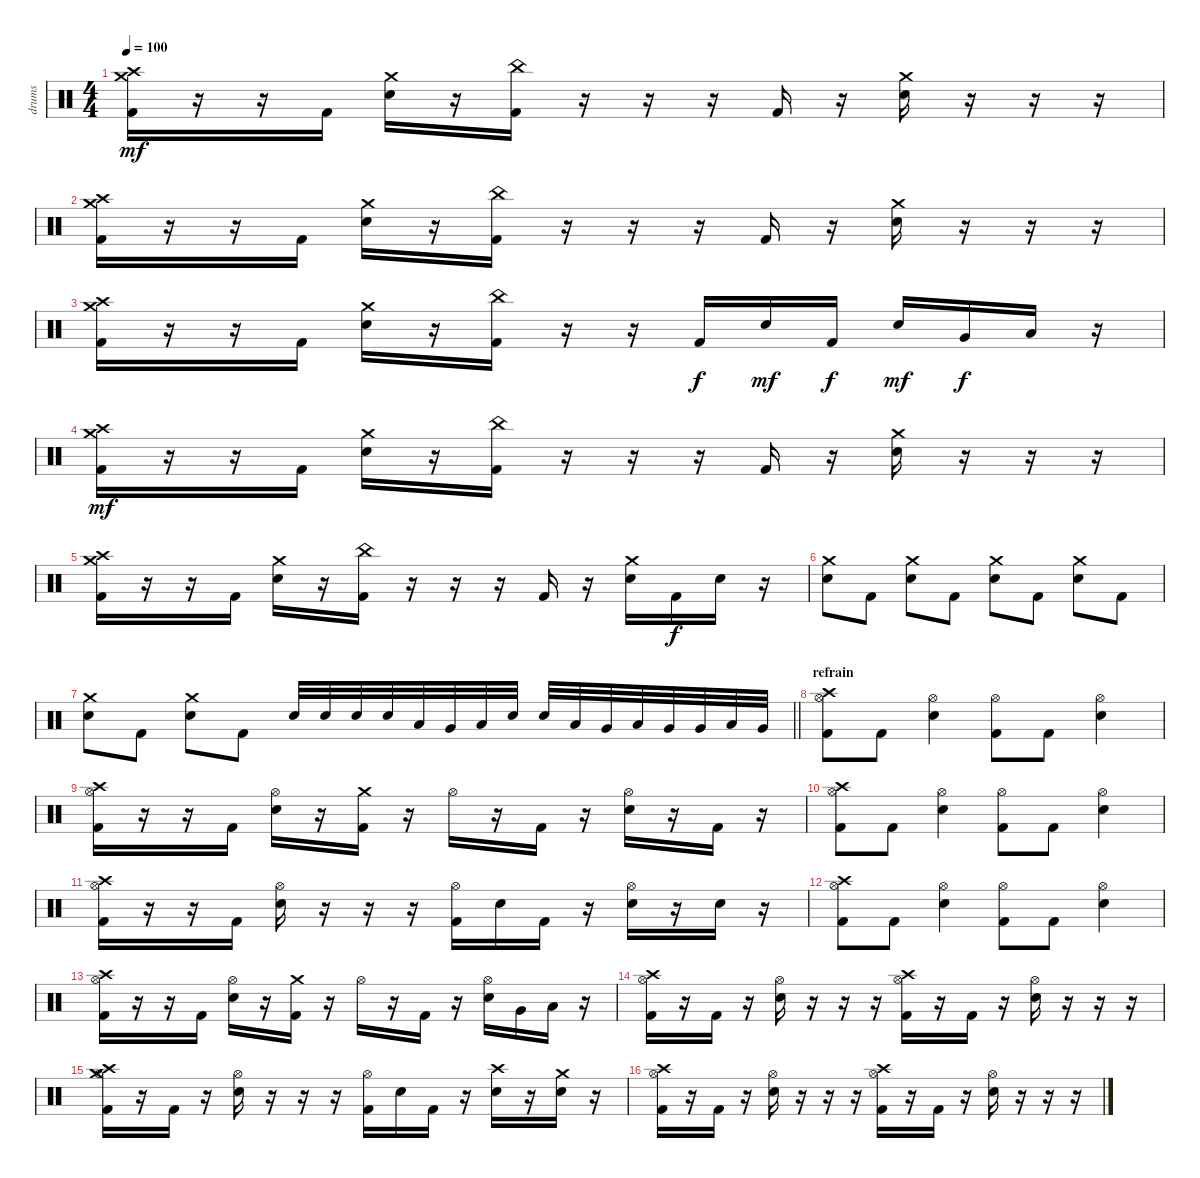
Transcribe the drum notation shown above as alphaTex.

\track ("drums" "drums") {instrument percussion}
\staff {score}
\articulation defaults
\ts (4 4)
\tempo 100
\clef neutral
\ks c
("Crash high (hit)" "Crash medium (hit)" "Kick (hit) 2").16{dy mf} r.16 r.16 "Kick (hit) 2".16 ("Crash medium (hit)" "Electric Snare (hit)").16 r.16 ("China (hit)" "Kick (hit) 2").16 r.16 r.16 r.16 "Kick (hit) 2".16 r.16 ("Crash medium (hit)" "Electric Snare (hit)").16 r.16 r.16 r.16 |
("Crash high (hit)" "Crash medium (hit)" "Kick (hit) 2").16 r.16 r.16 "Kick (hit) 2".16 ("Crash medium (hit)" "Electric Snare (hit)").16 r.16 ("China (hit)" "Kick (hit) 2").16 r.16 r.16 r.16 "Kick (hit) 2".16 r.16 ("Crash medium (hit)" "Electric Snare (hit)").16 r.16 r.16 r.16 |
("Crash high (hit)" "Crash medium (hit)" "Kick (hit) 2").16 r.16 r.16 "Kick (hit) 2".16 ("Crash medium (hit)" "Electric Snare (hit)").16 r.16 ("China (hit)" "Kick (hit) 2").16 r.16 r.16 "Kick (hit) 2".16{dy f} "Electric Snare (hit)".16{dy mf} "Kick (hit) 2".16{dy f} "Electric Snare (hit)".16{dy mf} "Very Low Tom (hit)".16{dy f} "Low Floor Tom (hit)".16 r.16 |
("Crash high (hit)" "Crash medium (hit)" "Kick (hit) 2").16{dy mf} r.16 r.16 "Kick (hit) 2".16 ("Crash medium (hit)" "Electric Snare (hit)").16 r.16 ("China (hit)" "Kick (hit) 2").16 r.16 r.16 r.16 "Kick (hit) 2".16 r.16 ("Crash medium (hit)" "Electric Snare (hit)").16 r.16 r.16 r.16 |
("Crash high (hit)" "Crash medium (hit)" "Kick (hit) 2").16 r.16 r.16 "Kick (hit) 2".16 ("Crash medium (hit)" "Electric Snare (hit)").16 r.16 ("China (hit)" "Kick (hit) 2").16 r.16 r.16 r.16 "Kick (hit) 2".16 r.16 ("Crash medium (hit)" "Electric Snare (hit)").16 "Kick (hit) 2".16{dy f} "Electric Snare (hit)".16 r.16 |
("Crash medium (hit)" "Electric Snare (hit)").8 "Kick (hit) 2".8 ("Crash medium (hit)" "Electric Snare (hit)").8 "Kick (hit) 2".8 ("Crash medium (hit)" "Electric Snare (hit)").8 "Kick (hit) 2".8 ("Crash medium (hit)" "Electric Snare (hit)").8 "Kick (hit) 2".8 |
\barLineRight lightlight
("Crash medium (hit)" "Electric Snare (hit)").8 "Kick (hit) 2".8 ("Crash medium (hit)" "Electric Snare (hit)").8 "Kick (hit) 2".8 "Electric Snare (hit)".32 "Electric Snare (hit)".32 "Electric Snare (hit)".32 "Electric Snare (hit)".32 "Low Tom (hit)".32 "Very Low Tom (hit)".32 "Low Floor Tom (hit)".32 "Electric Snare (hit)".32 "Electric Snare (hit)".32 "Low Tom (hit)".32 "Very Low Tom (hit)".32 "Low Tom (hit)".32 "Very Low Tom (hit)".32 "Very Low Tom (hit)".32 "Low Tom (hit)".32 "Very Low Tom (hit)".32 |
\section ("" "refrain")
("Hi-Hat (open)" "Crash high (hit)" "Kick (hit) 2").8 "Kick (hit) 2".8 ("Hi-Hat (open)" "Electric Snare (hit)").4 ("Hi-Hat (open)" "Kick (hit) 2").8 "Kick (hit) 2".8 ("Hi-Hat (open)" "Electric Snare (hit)").4 |
("Crash high (hit)" "Hi-Hat (open)" "Kick (hit) 2").16 r.16 r.16 "Kick (hit) 2".16 ("Hi-Hat (open)" "Electric Snare (hit)").16 r.16 ("Crash medium (hit)" "Kick (hit) 2").16 r.16 "Hi-Hat (open)".16 r.16 "Kick (hit) 2".16 r.16 ("Hi-Hat (open)" "Electric Snare (hit)").16 r.16 "Kick (hit) 2".16 r.16 |
("Hi-Hat (open)" "Crash high (hit)" "Kick (hit) 2").8 "Kick (hit) 2".8 ("Hi-Hat (open)" "Electric Snare (hit)").4 ("Hi-Hat (open)" "Kick (hit) 2").8 "Kick (hit) 2".8 ("Hi-Hat (open)" "Electric Snare (hit)").4 |
("Crash high (hit)" "Hi-Hat (open)" "Kick (hit) 2").16 r.16 r.16 "Kick (hit) 2".16 ("Hi-Hat (open)" "Electric Snare (hit)").16 r.16 r.16 r.16 ("Hi-Hat (open)" "Kick (hit) 2").16 "Electric Snare (hit)".16 "Kick (hit) 2".16 r.16 ("Hi-Hat (open)" "Electric Snare (hit)").16 r.16 "Electric Snare (hit)".16 r.16 |
("Hi-Hat (open)" "Crash high (hit)" "Kick (hit) 2").8 "Kick (hit) 2".8 ("Hi-Hat (open)" "Electric Snare (hit)").4 ("Hi-Hat (open)" "Kick (hit) 2").8 "Kick (hit) 2".8 ("Hi-Hat (open)" "Electric Snare (hit)").4 |
("Crash high (hit)" "Hi-Hat (open)" "Kick (hit) 2").16 r.16 r.16 "Kick (hit) 2".16 ("Hi-Hat (open)" "Electric Snare (hit)").16 r.16 ("Crash medium (hit)" "Kick (hit) 2").16 r.16 "Hi-Hat (open)".16 r.16 "Kick (hit) 2".16 r.16 ("Hi-Hat (open)" "Electric Snare (hit)").16 "Very Low Tom (hit)".16 "Low Floor Tom (hit)".16 r.16 |
("Crash high (hit)" "Hi-Hat (open)" "Kick (hit) 2").16 r.16 "Kick (hit) 2".16 r.16 ("Hi-Hat (open)" "Electric Snare (hit)").16 r.16 r.16 r.16 ("Crash high (hit)" "Hi-Hat (open)" "Kick (hit) 2").16 r.16 "Kick (hit) 2".16 r.16 ("Hi-Hat (open)" "Electric Snare (hit)").16 r.16 r.16 r.16 |
("Crash medium (hit)" "Crash high (hit)" "Hi-Hat (open)" "Kick (hit) 2").16 r.16 "Kick (hit) 2".16 r.16 ("Hi-Hat (open)" "Electric Snare (hit)").16 r.16 r.16 r.16 ("Hi-Hat (open)" "Kick (hit) 2").16 "Electric Snare (hit)".16 "Kick (hit) 2".16 r.16 ("Crash high (hit)" "Electric Snare (hit)").16 r.16 ("Crash medium (hit)" "Electric Snare (hit)").16 r.16 |
("Crash high (hit)" "Hi-Hat (open)" "Kick (hit) 2").16 r.16 "Kick (hit) 2".16 r.16 ("Hi-Hat (open)" "Electric Snare (hit)").16 r.16 r.16 r.16 ("Crash high (hit)" "Hi-Hat (open)" "Kick (hit) 2").16 r.16 "Kick (hit) 2".16 r.16 ("Hi-Hat (open)" "Electric Snare (hit)").16 r.16 r.16 r.16
